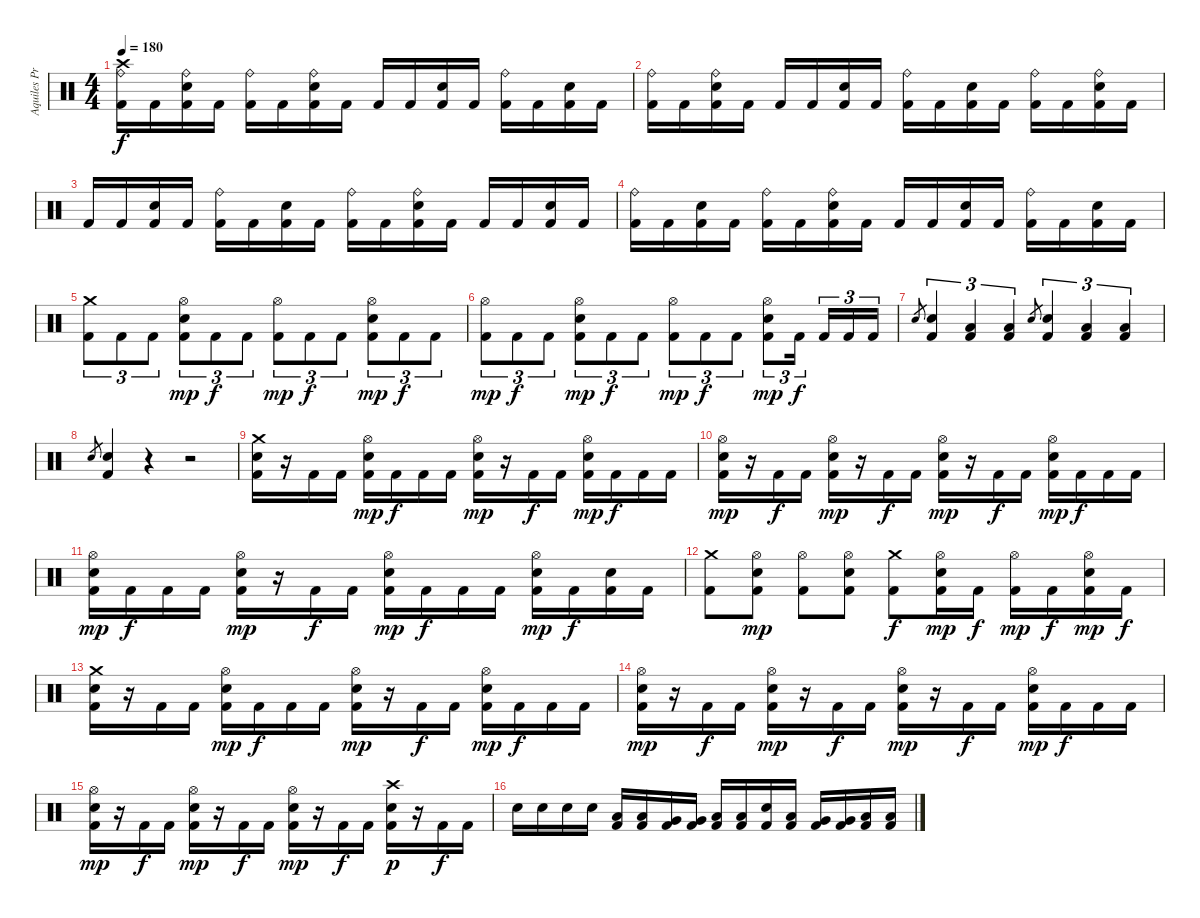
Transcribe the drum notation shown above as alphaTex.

\track ("Aquiles Priester" "Aquiles Pr") {instrument percussion}
\staff {score}
\articulation defaults
\ts (4 4)
\tempo 180
\clef neutral
\ks c
("Crash high (hit)" "Ride (bell)" "Kick (hit) 2").16{dy f} "Kick (hit) 2".16 ("Ride (bell)" "Snare (hit) 2" "Kick (hit) 2").16 "Kick (hit) 2".16 ("Ride (bell)" "Kick (hit) 2").16 "Kick (hit) 2".16 ("Ride (bell)" "Snare (hit) 2" "Kick (hit) 2").16 "Kick (hit) 2".16 "Kick (hit) 2".16 "Kick (hit) 2".16 ("Snare (hit) 2" "Kick (hit) 2").16 "Kick (hit) 2".16 ("Ride (bell)" "Kick (hit) 2").16 "Kick (hit) 2".16 ("Snare (hit) 2" "Kick (hit) 2").16 "Kick (hit) 2".16 |
("Ride (bell)" "Kick (hit) 2").16 "Kick (hit) 2".16 ("Ride (bell)" "Snare (hit) 2" "Kick (hit) 2").16 "Kick (hit) 2".16 "Kick (hit) 2".16 "Kick (hit) 2".16 ("Snare (hit) 2" "Kick (hit) 2").16 "Kick (hit) 2".16 ("Ride (bell)" "Kick (hit) 2").16 "Kick (hit) 2".16 ("Snare (hit) 2" "Kick (hit) 2").16 "Kick (hit) 2".16 ("Ride (bell)" "Kick (hit) 2").16 "Kick (hit) 2".16 ("Ride (bell)" "Snare (hit) 2" "Kick (hit) 2").16 "Kick (hit) 2".16 |
"Kick (hit) 2".16 "Kick (hit) 2".16 ("Snare (hit) 2" "Kick (hit) 2").16 "Kick (hit) 2".16 ("Ride (bell)" "Kick (hit) 2").16 "Kick (hit) 2".16 ("Snare (hit) 2" "Kick (hit) 2").16 "Kick (hit) 2".16 ("Ride (bell)" "Kick (hit) 2").16 "Kick (hit) 2".16 ("Ride (bell)" "Snare (hit) 2" "Kick (hit) 2").16 "Kick (hit) 2".16 "Kick (hit) 2".16 "Kick (hit) 2".16 ("Snare (hit) 2" "Kick (hit) 2").16 "Kick (hit) 2".16 |
("Ride (bell)" "Kick (hit) 2").16 "Kick (hit) 2".16 ("Snare (hit) 2" "Kick (hit) 2").16 "Kick (hit) 2".16 ("Ride (bell)" "Kick (hit) 2").16 "Kick (hit) 2".16 ("Ride (bell)" "Snare (hit) 2" "Kick (hit) 2").16 "Kick (hit) 2".16 "Kick (hit) 2".16 "Kick (hit) 2".16 ("Snare (hit) 2" "Kick (hit) 2").16 "Kick (hit) 2".16 ("Ride (bell)" "Kick (hit) 2").16 "Kick (hit) 2".16 ("Snare (hit) 2" "Kick (hit) 2").16 "Kick (hit) 2".16 |
("Crash medium (hit)" "Kick (hit) 2").8{tu (3 2)} "Kick (hit) 2".8{tu (3 2)} "Kick (hit) 2".8{tu (3 2)} ("Hi-Hat (open)" "Snare (hit) 2" "Kick (hit) 2").8{tu (3 2) dy mp} "Kick (hit) 2".8{tu (3 2) dy f} "Kick (hit) 2".8{tu (3 2)} ("Hi-Hat (open)" "Kick (hit) 2").8{tu (3 2) dy mp} "Kick (hit) 2".8{tu (3 2) dy f} "Kick (hit) 2".8{tu (3 2)} ("Hi-Hat (open)" "Snare (hit) 2" "Kick (hit) 2").8{tu (3 2) dy mp} "Kick (hit) 2".8{tu (3 2) dy f} "Kick (hit) 2".8{tu (3 2)} |
("Hi-Hat (open)" "Kick (hit) 2").8{tu (3 2) dy mp} "Kick (hit) 2".8{tu (3 2) dy f} "Kick (hit) 2".8{tu (3 2)} ("Hi-Hat (open)" "Snare (hit) 2" "Kick (hit) 2").8{tu (3 2) dy mp} "Kick (hit) 2".8{tu (3 2) dy f} "Kick (hit) 2".8{tu (3 2)} ("Hi-Hat (open)" "Kick (hit) 2").8{tu (3 2) dy mp} "Kick (hit) 2".8{tu (3 2) dy f} "Kick (hit) 2".8{tu (3 2)} ("Hi-Hat (open)" "Snare (hit) 2" "Kick (hit) 2").8{tu (3 2) dy mp} "Kick (hit) 2".16{tu (3 2) dy f beam splitsecondary} "Kick (hit) 2".16{tu (3 2)} "Kick (hit) 2".16{tu (3 2)} "Kick (hit) 2".16{tu (3 2)} |
"Snare (hit) 2".8{gr} ("Snare (hit) 2" "Kick (hit) 2").4{tu (3 2)} ("Low Floor Tom (hit)" "Kick (hit) 2").4{tu (3 2)} ("Low Floor Tom (hit)" "Kick (hit) 2").4{tu (3 2)} "Snare (hit) 2".8{gr} ("Snare (hit) 2" "Kick (hit) 2").4{tu (3 2)} ("Low Floor Tom (hit)" "Kick (hit) 2").4{tu (3 2)} ("Low Floor Tom (hit)" "Kick (hit) 2").4{tu (3 2)} |
"Snare (hit) 2".8{gr} ("Snare (hit) 2" "Kick (hit) 2").4 r.4 r.2 |
("Crash medium (hit)" "Snare (hit) 2" "Kick (hit) 2").16 r.16 "Kick (hit) 2".16 "Kick (hit) 2".16 ("Hi-Hat (open)" "Snare (hit) 2" "Kick (hit) 2").16{dy mp} "Kick (hit) 2".16{dy f} "Kick (hit) 2".16 "Kick (hit) 2".16 ("Hi-Hat (open)" "Snare (hit) 2" "Kick (hit) 2").16{dy mp} r.16 "Kick (hit) 2".16{dy f} "Kick (hit) 2".16 ("Hi-Hat (open)" "Snare (hit) 2" "Kick (hit) 2").16{dy mp} "Kick (hit) 2".16{dy f} "Kick (hit) 2".16 "Kick (hit) 2".16 |
("Hi-Hat (open)" "Snare (hit) 2" "Kick (hit) 2").16{dy mp} r.16 "Kick (hit) 2".16{dy f} "Kick (hit) 2".16 ("Hi-Hat (open)" "Snare (hit) 2" "Kick (hit) 2").16{dy mp} r.16 "Kick (hit) 2".16{dy f} "Kick (hit) 2".16 ("Hi-Hat (open)" "Snare (hit) 2" "Kick (hit) 2").16{dy mp} r.16 "Kick (hit) 2".16{dy f} "Kick (hit) 2".16 ("Hi-Hat (open)" "Snare (hit) 2" "Kick (hit) 2").16{dy mp} "Kick (hit) 2".16{dy f} "Kick (hit) 2".16 "Kick (hit) 2".16 |
("Hi-Hat (open)" "Snare (hit) 2" "Kick (hit) 2").16{dy mp} "Kick (hit) 2".16{dy f} "Kick (hit) 2".16 "Kick (hit) 2".16 ("Hi-Hat (open)" "Snare (hit) 2" "Kick (hit) 2").16{dy mp} r.16 "Kick (hit) 2".16{dy f} "Kick (hit) 2".16 ("Hi-Hat (open)" "Snare (hit) 2" "Kick (hit) 2").16{dy mp} "Kick (hit) 2".16{dy f} "Kick (hit) 2".16 "Kick (hit) 2".16 ("Hi-Hat (open)" "Snare (hit) 2" "Kick (hit) 2").16{dy mp} "Kick (hit) 2".16{dy f} ("Snare (hit) 2" "Kick (hit) 2").16 "Kick (hit) 2".16 |
("Crash medium (hit)" "Kick (hit) 2").8 ("Hi-Hat (open)" "Snare (hit) 2" "Kick (hit) 2").8{dy mp} ("Hi-Hat (open)" "Kick (hit) 2").8 ("Hi-Hat (open)" "Snare (hit) 2" "Kick (hit) 2").8 ("Crash medium (hit)" "Kick (hit) 2").8{dy f} ("Hi-Hat (open)" "Snare (hit) 2" "Kick (hit) 2").16{dy mp} "Kick (hit) 2".16{dy f} ("Hi-Hat (open)" "Kick (hit) 2").16{dy mp} "Kick (hit) 2".16{dy f} ("Hi-Hat (open)" "Snare (hit) 2" "Kick (hit) 2").16{dy mp} "Kick (hit) 2".16{dy f} |
("Crash medium (hit)" "Snare (hit) 2" "Kick (hit) 2").16 r.16 "Kick (hit) 2".16 "Kick (hit) 2".16 ("Hi-Hat (open)" "Snare (hit) 2" "Kick (hit) 2").16{dy mp} "Kick (hit) 2".16{dy f} "Kick (hit) 2".16 "Kick (hit) 2".16 ("Hi-Hat (open)" "Snare (hit) 2" "Kick (hit) 2").16{dy mp} r.16 "Kick (hit) 2".16{dy f} "Kick (hit) 2".16 ("Hi-Hat (open)" "Snare (hit) 2" "Kick (hit) 2").16{dy mp} "Kick (hit) 2".16{dy f} "Kick (hit) 2".16 "Kick (hit) 2".16 |
("Hi-Hat (open)" "Snare (hit) 2" "Kick (hit) 2").16{dy mp} r.16 "Kick (hit) 2".16{dy f} "Kick (hit) 2".16 ("Hi-Hat (open)" "Snare (hit) 2" "Kick (hit) 2").16{dy mp} r.16 "Kick (hit) 2".16{dy f} "Kick (hit) 2".16 ("Hi-Hat (open)" "Snare (hit) 2" "Kick (hit) 2").16{dy mp} r.16 "Kick (hit) 2".16{dy f} "Kick (hit) 2".16 ("Hi-Hat (open)" "Snare (hit) 2" "Kick (hit) 2").16{dy mp} "Kick (hit) 2".16{dy f} "Kick (hit) 2".16 "Kick (hit) 2".16 |
("Hi-Hat (open)" "Snare (hit) 2" "Kick (hit) 2").16{dy mp} r.16 "Kick (hit) 2".16{dy f} "Kick (hit) 2".16 ("Hi-Hat (open)" "Snare (hit) 2" "Kick (hit) 2").16{dy mp} r.16 "Kick (hit) 2".16{dy f} "Kick (hit) 2".16 ("Hi-Hat (open)" "Snare (hit) 2" "Kick (hit) 2").16{dy mp} r.16 "Kick (hit) 2".16{dy f} "Kick (hit) 2".16 ("Crash high (hit)" "Snare (hit) 2" "Kick (hit) 2").16{dy p} r.16 "Kick (hit) 2".16{dy f} "Kick (hit) 2".16 |
"Snare (hit) 2".16 "Snare (hit) 2".16 "Snare (hit) 2".16 "Snare (hit) 2".16 ("Low Tom (hit)" "Kick (hit) 2").16 ("Low Tom (hit)" "Kick (hit) 2").16 ("Very Low Tom (hit)" "Kick (hit) 2").16 ("Very Low Tom (hit)" "Kick (hit) 2").16 ("Low Tom (hit)" "Kick (hit) 2").16 ("Low Tom (hit)" "Kick (hit) 2").16 ("Snare (hit) 2" "Kick (hit) 2").16 ("Low Tom (hit)" "Kick (hit) 2").16 ("Very Low Tom (hit)" "Kick (hit) 2").16 ("Very Low Tom (hit)" "Kick (hit) 2").16 ("Low Floor Tom (hit)" "Kick (hit) 2").16 ("Low Floor Tom (hit)" "Kick (hit) 2").16
